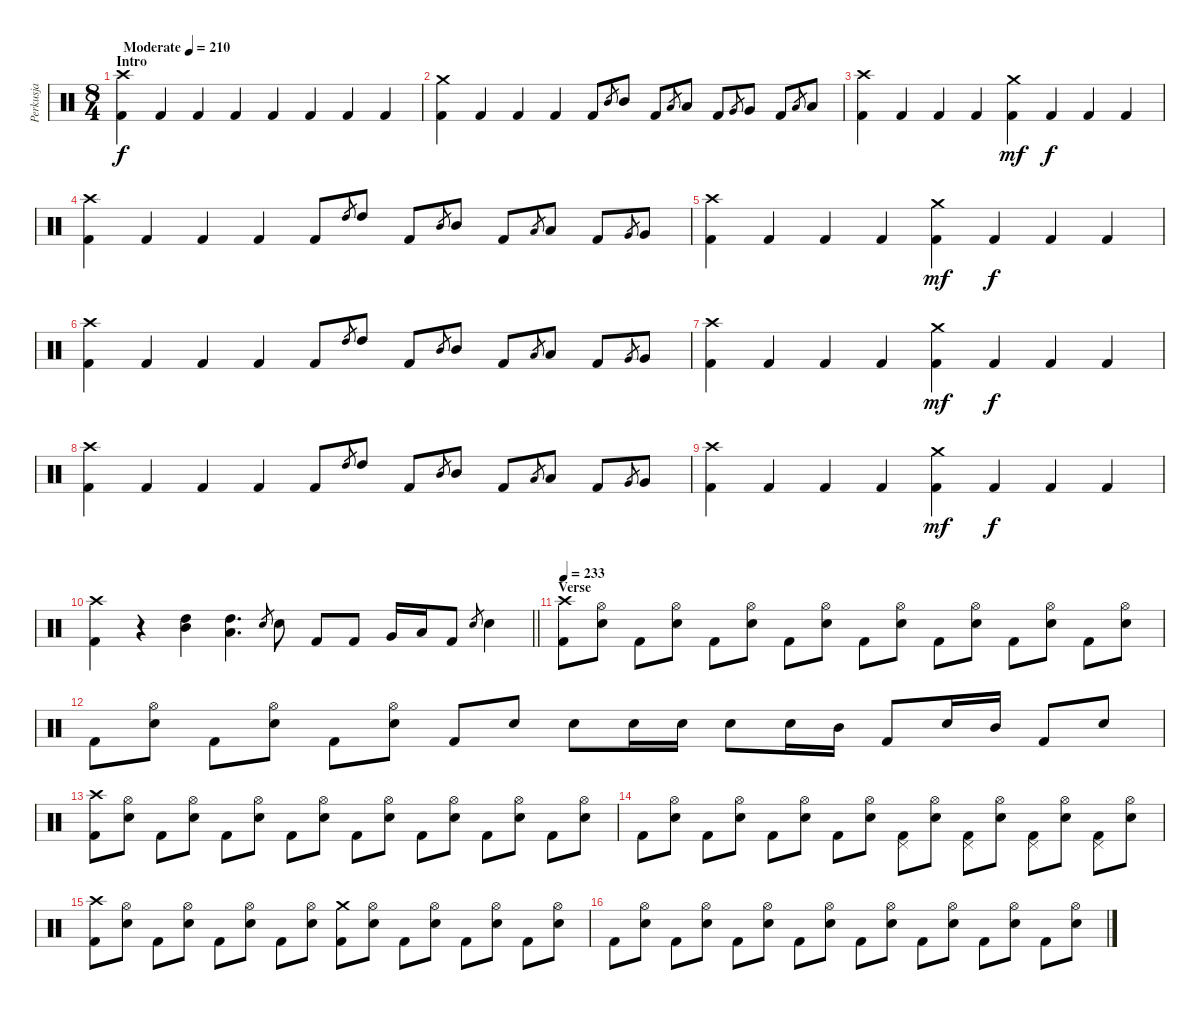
\track ("Perkusja" "Perkusja") {instrument percussion}
\staff {score}
\articulation defaults
\ts (8 4)
\section ("" "Intro")
\tempo (210 "Moderate")
\tempo 208
\tempo (210 "Moderate")
\clef neutral
\ks c
("Crash high (hit)" "Kick (hit) 2").4{dy f} "Kick (hit) 2".4 "Kick (hit) 2".4 "Kick (hit) 2".4 "Kick (hit) 2".4 "Kick (hit) 2".4 "Kick (hit) 2".4 "Kick (hit) 2".4 |
("Crash medium (hit)" "Kick (hit) 2").4 "Kick (hit) 2".4 "Kick (hit) 2".4 "Kick (hit) 2".4 "Kick (hit) 2".8 "Mid Tom (hit)".8{gr} "Mid Tom (hit)".8 "Kick (hit) 2".8 "Low Tom (hit)".8{gr} "Low Tom (hit)".8 "Kick (hit) 2".8 "Very Low Tom (hit)".8{gr} "Very Low Tom (hit)".8 "Kick (hit) 2".8 "Low Floor Tom (hit)".8{gr} "Low Floor Tom (hit)".8 |
("Crash high (hit)" "Kick (hit) 2").4 "Kick (hit) 2".4 "Kick (hit) 2".4 "Kick (hit) 2".4 ("Crash medium (hit)" "Kick (hit) 2").4{dy mf} "Kick (hit) 2".4{dy f} "Kick (hit) 2".4 "Kick (hit) 2".4 |
("Crash high (hit)" "Kick (hit) 2").4 "Kick (hit) 2".4 "Kick (hit) 2".4 "Kick (hit) 2".4 "Kick (hit) 2".8 "High Tom (hit)".8{gr} "High Tom (hit)".8 "Kick (hit) 2".8 "Mid Tom (hit)".8{gr} "Mid Tom (hit)".8 "Kick (hit) 2".8 "Low Tom (hit)".8{gr} "Low Tom (hit)".8 "Kick (hit) 2".8 "Very Low Tom (hit)".8{gr} "Very Low Tom (hit)".8 |
("Crash high (hit)" "Kick (hit) 2").4 "Kick (hit) 2".4 "Kick (hit) 2".4 "Kick (hit) 2".4 ("Crash medium (hit)" "Kick (hit) 2").4{dy mf} "Kick (hit) 2".4{dy f} "Kick (hit) 2".4 "Kick (hit) 2".4 |
("Crash high (hit)" "Kick (hit) 2").4 "Kick (hit) 2".4 "Kick (hit) 2".4 "Kick (hit) 2".4 "Kick (hit) 2".8 "High Tom (hit)".8{gr} "High Tom (hit)".8 "Kick (hit) 2".8 "Mid Tom (hit)".8{gr} "Mid Tom (hit)".8 "Kick (hit) 2".8 "Low Tom (hit)".8{gr} "Low Tom (hit)".8 "Kick (hit) 2".8 "Very Low Tom (hit)".8{gr} "Very Low Tom (hit)".8 |
("Crash high (hit)" "Kick (hit) 2").4 "Kick (hit) 2".4 "Kick (hit) 2".4 "Kick (hit) 2".4 ("Crash medium (hit)" "Kick (hit) 2").4{dy mf} "Kick (hit) 2".4{dy f} "Kick (hit) 2".4 "Kick (hit) 2".4 |
("Crash high (hit)" "Kick (hit) 2").4 "Kick (hit) 2".4 "Kick (hit) 2".4 "Kick (hit) 2".4 "Kick (hit) 2".8 "High Tom (hit)".8{gr} "High Tom (hit)".8 "Kick (hit) 2".8 "Mid Tom (hit)".8{gr} "Mid Tom (hit)".8 "Kick (hit) 2".8 "Low Tom (hit)".8{gr} "Low Tom (hit)".8 "Kick (hit) 2".8 "Very Low Tom (hit)".8{gr} "Very Low Tom (hit)".8 |
("Crash high (hit)" "Kick (hit) 2").4 "Kick (hit) 2".4 "Kick (hit) 2".4 "Kick (hit) 2".4 ("Crash medium (hit)" "Kick (hit) 2").4{dy mf} "Kick (hit) 2".4{dy f} "Kick (hit) 2".4 "Kick (hit) 2".4 |
\barLineRight lightlight
("Crash high (hit)" "Kick (hit) 2").4 r.4 ("High Tom (hit)" "Mid Tom (hit)").4 ("High Tom (hit)" "Low Tom (hit)").4{d} "Snare (hit) 2".8{gr} "Snare (hit) 2".8 "Kick (hit) 2".8 "Kick (hit) 2".8 "Very Low Tom (hit)".16 "Low Floor Tom (hit)".16 "Kick (hit) 2".8 "Snare (hit) 2".8{gr} "Snare (hit) 2".4 |
\section ("" "Verse")
\tempo 233
("Crash high (hit)" "Kick (hit) 2").8 ("Hi-Hat (open)" "Snare (hit) 2").8 "Kick (hit) 2".8 ("Hi-Hat (open)" "Snare (hit) 2").8 "Kick (hit) 2".8 ("Hi-Hat (open)" "Snare (hit) 2").8 "Kick (hit) 2".8 ("Hi-Hat (open)" "Snare (hit) 2").8 "Kick (hit) 2".8 ("Hi-Hat (open)" "Snare (hit) 2").8 "Kick (hit) 2".8 ("Hi-Hat (open)" "Snare (hit) 2").8 "Kick (hit) 2".8 ("Hi-Hat (open)" "Snare (hit) 2").8 "Kick (hit) 2".8 ("Hi-Hat (open)" "Snare (hit) 2").8 |
"Kick (hit) 2".8 ("Hi-Hat (open)" "Snare (hit) 2").8 "Kick (hit) 2".8 ("Hi-Hat (open)" "Snare (hit) 2").8 "Kick (hit) 2".8 ("Hi-Hat (open)" "Snare (hit) 2").8 "Kick (hit) 2".8 "Snare (hit) 2".8 "Snare (hit) 2".8 "Snare (hit) 2".16 "Snare (hit) 2".16 "Snare (hit) 2".8 "Snare (hit) 2".16 "Mid Tom (hit)".16 "Kick (hit) 2".8 "Snare (hit) 2".16 "Mid Tom (hit)".16 "Kick (hit) 2".8 "Snare (hit) 2".8 |
("Crash high (hit)" "Kick (hit) 2").8 ("Hi-Hat (open)" "Snare (hit) 2").8 "Kick (hit) 2".8 ("Hi-Hat (open)" "Snare (hit) 2").8 "Kick (hit) 2".8 ("Hi-Hat (open)" "Snare (hit) 2").8 "Kick (hit) 2".8 ("Hi-Hat (open)" "Snare (hit) 2").8 "Kick (hit) 2".8 ("Hi-Hat (open)" "Snare (hit) 2").8 "Kick (hit) 2".8 ("Hi-Hat (open)" "Snare (hit) 2").8 "Kick (hit) 2".8 ("Hi-Hat (open)" "Snare (hit) 2").8 "Kick (hit) 2".8 ("Hi-Hat (open)" "Snare (hit) 2").8 |
"Kick (hit) 2".8 ("Hi-Hat (open)" "Snare (hit) 2").8 "Kick (hit) 2".8 ("Hi-Hat (open)" "Snare (hit) 2").8 "Kick (hit) 2".8 ("Hi-Hat (open)" "Snare (hit) 2").8 "Kick (hit) 2".8 ("Hi-Hat (open)" "Snare (hit) 2").8 ("Pedal Hi-Hat (hit)" "Kick (hit) 2").8 ("Hi-Hat (open)" "Snare (hit) 2").8 ("Pedal Hi-Hat (hit)" "Kick (hit) 2").8 ("Hi-Hat (open)" "Snare (hit) 2").8 ("Pedal Hi-Hat (hit)" "Kick (hit) 2").8 ("Hi-Hat (open)" "Snare (hit) 2").8 ("Pedal Hi-Hat (hit)" "Kick (hit) 2").8 ("Hi-Hat (open)" "Snare (hit) 2").8 |
("Crash high (hit)" "Kick (hit) 2").8 ("Hi-Hat (open)" "Snare (hit) 2").8 "Kick (hit) 2".8 ("Hi-Hat (open)" "Snare (hit) 2").8 "Kick (hit) 2".8 ("Hi-Hat (open)" "Snare (hit) 2").8 "Kick (hit) 2".8 ("Hi-Hat (open)" "Snare (hit) 2").8 ("Crash medium (hit)" "Kick (hit) 2").8 ("Hi-Hat (open)" "Snare (hit) 2").8 "Kick (hit) 2".8 ("Hi-Hat (open)" "Snare (hit) 2").8 "Kick (hit) 2".8 ("Hi-Hat (open)" "Snare (hit) 2").8 "Kick (hit) 2".8 ("Hi-Hat (open)" "Snare (hit) 2").8 |
"Kick (hit) 2".8 ("Hi-Hat (open)" "Snare (hit) 2").8 "Kick (hit) 2".8 ("Hi-Hat (open)" "Snare (hit) 2").8 "Kick (hit) 2".8 ("Hi-Hat (open)" "Snare (hit) 2").8 "Kick (hit) 2".8 ("Hi-Hat (open)" "Snare (hit) 2").8 "Kick (hit) 2".8 ("Hi-Hat (open)" "Snare (hit) 2").8 "Kick (hit) 2".8 ("Hi-Hat (open)" "Snare (hit) 2").8 "Kick (hit) 2".8 ("Hi-Hat (open)" "Snare (hit) 2").8 "Kick (hit) 2".8 ("Hi-Hat (open)" "Snare (hit) 2").8
